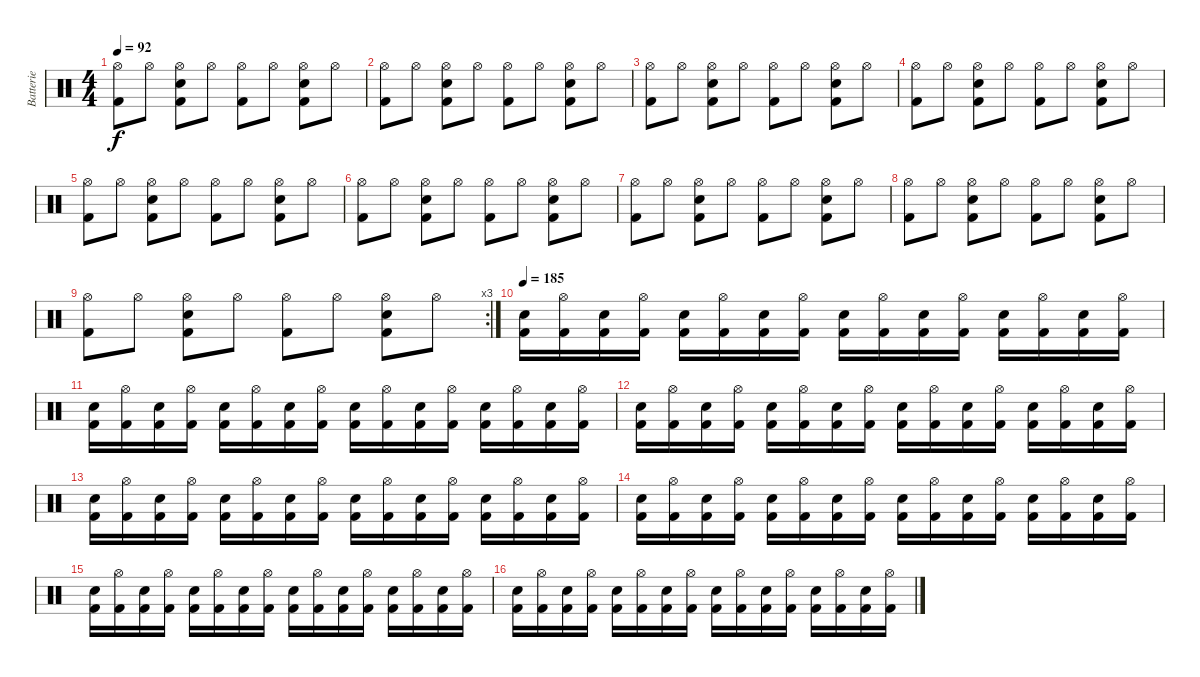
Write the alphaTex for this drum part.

\track ("Batterie" "Batterie") {instrument percussion}
\staff {score}
\articulation defaults
\ts (4 4)
\tempo 92
\clef neutral
\ks c
("Hi-Hat (open)" "Kick (hit) 2").8{dy f} "Hi-Hat (open)".8 ("Hi-Hat (open)" "Electric Snare (hit)" "Kick (hit) 2").8 "Hi-Hat (open)".8 ("Hi-Hat (open)" "Kick (hit) 2").8 "Hi-Hat (open)".8 ("Hi-Hat (open)" "Electric Snare (hit)" "Kick (hit) 2").8 "Hi-Hat (open)".8 |
("Hi-Hat (open)" "Kick (hit) 2").8 "Hi-Hat (open)".8 ("Hi-Hat (open)" "Electric Snare (hit)" "Kick (hit) 2").8 "Hi-Hat (open)".8 ("Hi-Hat (open)" "Kick (hit) 2").8 "Hi-Hat (open)".8 ("Hi-Hat (open)" "Electric Snare (hit)" "Kick (hit) 2").8 "Hi-Hat (open)".8 |
("Hi-Hat (open)" "Kick (hit) 2").8 "Hi-Hat (open)".8 ("Hi-Hat (open)" "Electric Snare (hit)" "Kick (hit) 2").8 "Hi-Hat (open)".8 ("Hi-Hat (open)" "Kick (hit) 2").8 "Hi-Hat (open)".8 ("Hi-Hat (open)" "Electric Snare (hit)" "Kick (hit) 2").8 "Hi-Hat (open)".8 |
("Hi-Hat (open)" "Kick (hit) 2").8 "Hi-Hat (open)".8 ("Hi-Hat (open)" "Electric Snare (hit)" "Kick (hit) 2").8 "Hi-Hat (open)".8 ("Hi-Hat (open)" "Kick (hit) 2").8 "Hi-Hat (open)".8 ("Hi-Hat (open)" "Electric Snare (hit)" "Kick (hit) 2").8 "Hi-Hat (open)".8 |
("Hi-Hat (open)" "Kick (hit) 2").8 "Hi-Hat (open)".8 ("Hi-Hat (open)" "Electric Snare (hit)" "Kick (hit) 2").8 "Hi-Hat (open)".8 ("Hi-Hat (open)" "Kick (hit) 2").8 "Hi-Hat (open)".8 ("Hi-Hat (open)" "Electric Snare (hit)" "Kick (hit) 2").8 "Hi-Hat (open)".8 |
("Hi-Hat (open)" "Kick (hit) 2").8 "Hi-Hat (open)".8 ("Hi-Hat (open)" "Electric Snare (hit)" "Kick (hit) 2").8 "Hi-Hat (open)".8 ("Hi-Hat (open)" "Kick (hit) 2").8 "Hi-Hat (open)".8 ("Hi-Hat (open)" "Electric Snare (hit)" "Kick (hit) 2").8 "Hi-Hat (open)".8 |
("Hi-Hat (open)" "Kick (hit) 2").8 "Hi-Hat (open)".8 ("Hi-Hat (open)" "Electric Snare (hit)" "Kick (hit) 2").8 "Hi-Hat (open)".8 ("Hi-Hat (open)" "Kick (hit) 2").8 "Hi-Hat (open)".8 ("Hi-Hat (open)" "Electric Snare (hit)" "Kick (hit) 2").8 "Hi-Hat (open)".8 |
("Hi-Hat (open)" "Kick (hit) 2").8 "Hi-Hat (open)".8 ("Hi-Hat (open)" "Electric Snare (hit)" "Kick (hit) 2").8 "Hi-Hat (open)".8 ("Hi-Hat (open)" "Kick (hit) 2").8 "Hi-Hat (open)".8 ("Hi-Hat (open)" "Electric Snare (hit)" "Kick (hit) 2").8 "Hi-Hat (open)".8 |
\rc 3
("Hi-Hat (open)" "Kick (hit) 2").8 "Hi-Hat (open)".8 ("Hi-Hat (open)" "Electric Snare (hit)" "Kick (hit) 2").8 "Hi-Hat (open)".8 ("Hi-Hat (open)" "Kick (hit) 2").8 "Hi-Hat (open)".8 ("Hi-Hat (open)" "Electric Snare (hit)" "Kick (hit) 2").8 "Hi-Hat (open)".8 |
\tempo 185
("Electric Snare (hit)" "Kick (hit) 2").16 ("Hi-Hat (open)" "Kick (hit) 2").16 ("Electric Snare (hit)" "Kick (hit) 2").16 ("Hi-Hat (open)" "Kick (hit) 2").16 ("Electric Snare (hit)" "Kick (hit) 2").16 ("Hi-Hat (open)" "Kick (hit) 2").16 ("Electric Snare (hit)" "Kick (hit) 2").16 ("Hi-Hat (open)" "Kick (hit) 2").16 ("Electric Snare (hit)" "Kick (hit) 2").16 ("Hi-Hat (open)" "Kick (hit) 2").16 ("Electric Snare (hit)" "Kick (hit) 2").16 ("Hi-Hat (open)" "Kick (hit) 2").16 ("Electric Snare (hit)" "Kick (hit) 2").16 ("Hi-Hat (open)" "Kick (hit) 2").16 ("Electric Snare (hit)" "Kick (hit) 2").16 ("Hi-Hat (open)" "Kick (hit) 2").16 |
("Electric Snare (hit)" "Kick (hit) 2").16 ("Hi-Hat (open)" "Kick (hit) 2").16 ("Electric Snare (hit)" "Kick (hit) 2").16 ("Hi-Hat (open)" "Kick (hit) 2").16 ("Electric Snare (hit)" "Kick (hit) 2").16 ("Hi-Hat (open)" "Kick (hit) 2").16 ("Electric Snare (hit)" "Kick (hit) 2").16 ("Hi-Hat (open)" "Kick (hit) 2").16 ("Electric Snare (hit)" "Kick (hit) 2").16 ("Hi-Hat (open)" "Kick (hit) 2").16 ("Electric Snare (hit)" "Kick (hit) 2").16 ("Hi-Hat (open)" "Kick (hit) 2").16 ("Electric Snare (hit)" "Kick (hit) 2").16 ("Hi-Hat (open)" "Kick (hit) 2").16 ("Electric Snare (hit)" "Kick (hit) 2").16 ("Hi-Hat (open)" "Kick (hit) 2").16 |
("Electric Snare (hit)" "Kick (hit) 2").16 ("Hi-Hat (open)" "Kick (hit) 2").16 ("Electric Snare (hit)" "Kick (hit) 2").16 ("Hi-Hat (open)" "Kick (hit) 2").16 ("Electric Snare (hit)" "Kick (hit) 2").16 ("Hi-Hat (open)" "Kick (hit) 2").16 ("Electric Snare (hit)" "Kick (hit) 2").16 ("Hi-Hat (open)" "Kick (hit) 2").16 ("Electric Snare (hit)" "Kick (hit) 2").16 ("Hi-Hat (open)" "Kick (hit) 2").16 ("Electric Snare (hit)" "Kick (hit) 2").16 ("Hi-Hat (open)" "Kick (hit) 2").16 ("Electric Snare (hit)" "Kick (hit) 2").16 ("Hi-Hat (open)" "Kick (hit) 2").16 ("Electric Snare (hit)" "Kick (hit) 2").16 ("Hi-Hat (open)" "Kick (hit) 2").16 |
("Electric Snare (hit)" "Kick (hit) 2").16 ("Hi-Hat (open)" "Kick (hit) 2").16 ("Electric Snare (hit)" "Kick (hit) 2").16 ("Hi-Hat (open)" "Kick (hit) 2").16 ("Electric Snare (hit)" "Kick (hit) 2").16 ("Hi-Hat (open)" "Kick (hit) 2").16 ("Electric Snare (hit)" "Kick (hit) 2").16 ("Hi-Hat (open)" "Kick (hit) 2").16 ("Electric Snare (hit)" "Kick (hit) 2").16 ("Hi-Hat (open)" "Kick (hit) 2").16 ("Electric Snare (hit)" "Kick (hit) 2").16 ("Hi-Hat (open)" "Kick (hit) 2").16 ("Electric Snare (hit)" "Kick (hit) 2").16 ("Hi-Hat (open)" "Kick (hit) 2").16 ("Electric Snare (hit)" "Kick (hit) 2").16 ("Hi-Hat (open)" "Kick (hit) 2").16 |
("Electric Snare (hit)" "Kick (hit) 2").16 ("Hi-Hat (open)" "Kick (hit) 2").16 ("Electric Snare (hit)" "Kick (hit) 2").16 ("Hi-Hat (open)" "Kick (hit) 2").16 ("Electric Snare (hit)" "Kick (hit) 2").16 ("Hi-Hat (open)" "Kick (hit) 2").16 ("Electric Snare (hit)" "Kick (hit) 2").16 ("Hi-Hat (open)" "Kick (hit) 2").16 ("Electric Snare (hit)" "Kick (hit) 2").16 ("Hi-Hat (open)" "Kick (hit) 2").16 ("Electric Snare (hit)" "Kick (hit) 2").16 ("Hi-Hat (open)" "Kick (hit) 2").16 ("Electric Snare (hit)" "Kick (hit) 2").16 ("Hi-Hat (open)" "Kick (hit) 2").16 ("Electric Snare (hit)" "Kick (hit) 2").16 ("Hi-Hat (open)" "Kick (hit) 2").16 |
("Electric Snare (hit)" "Kick (hit) 2").16 ("Hi-Hat (open)" "Kick (hit) 2").16 ("Electric Snare (hit)" "Kick (hit) 2").16 ("Hi-Hat (open)" "Kick (hit) 2").16 ("Electric Snare (hit)" "Kick (hit) 2").16 ("Hi-Hat (open)" "Kick (hit) 2").16 ("Electric Snare (hit)" "Kick (hit) 2").16 ("Hi-Hat (open)" "Kick (hit) 2").16 ("Electric Snare (hit)" "Kick (hit) 2").16 ("Hi-Hat (open)" "Kick (hit) 2").16 ("Electric Snare (hit)" "Kick (hit) 2").16 ("Hi-Hat (open)" "Kick (hit) 2").16 ("Electric Snare (hit)" "Kick (hit) 2").16 ("Hi-Hat (open)" "Kick (hit) 2").16 ("Electric Snare (hit)" "Kick (hit) 2").16 ("Hi-Hat (open)" "Kick (hit) 2").16 |
("Electric Snare (hit)" "Kick (hit) 2").16 ("Hi-Hat (open)" "Kick (hit) 2").16 ("Electric Snare (hit)" "Kick (hit) 2").16 ("Hi-Hat (open)" "Kick (hit) 2").16 ("Electric Snare (hit)" "Kick (hit) 2").16 ("Hi-Hat (open)" "Kick (hit) 2").16 ("Electric Snare (hit)" "Kick (hit) 2").16 ("Hi-Hat (open)" "Kick (hit) 2").16 ("Electric Snare (hit)" "Kick (hit) 2").16 ("Hi-Hat (open)" "Kick (hit) 2").16 ("Electric Snare (hit)" "Kick (hit) 2").16 ("Hi-Hat (open)" "Kick (hit) 2").16 ("Electric Snare (hit)" "Kick (hit) 2").16 ("Hi-Hat (open)" "Kick (hit) 2").16 ("Electric Snare (hit)" "Kick (hit) 2").16 ("Hi-Hat (open)" "Kick (hit) 2").16
